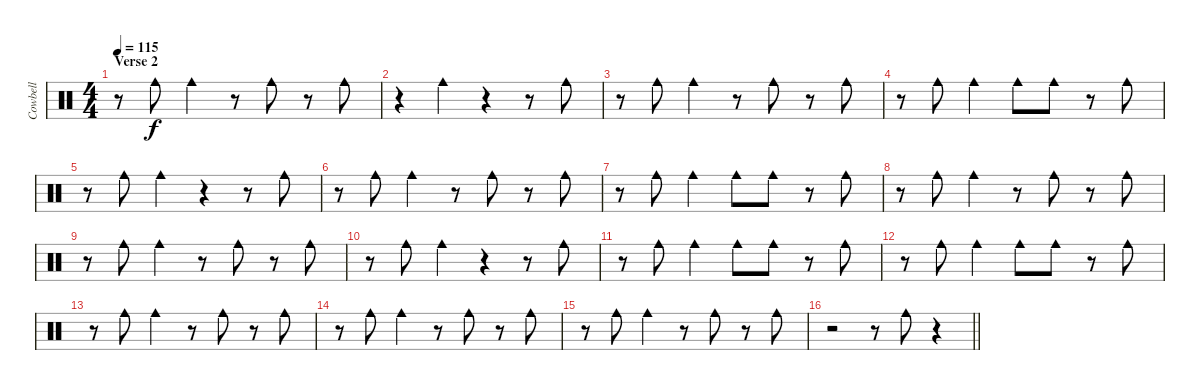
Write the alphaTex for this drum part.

\track ("Cowbell" "Cowbell") {instrument percussion}
\staff {score}
\articulation defaults
\ts (4 4)
\section ("" "Verse 2")
\tempo 115
\clef neutral
\ks c
r.8{dy f} "Cowbell medium (hit)".8 "Cowbell medium (hit)".4 r.8 "Cowbell medium (hit)".8 r.8 "Cowbell medium (hit)".8 |
r.4 "Cowbell medium (hit)".4 r.4 r.8 "Cowbell medium (hit)".8 |
r.8 "Cowbell medium (hit)".8 "Cowbell medium (hit)".4 r.8 "Cowbell medium (hit)".8 r.8 "Cowbell medium (hit)".8 |
r.8 "Cowbell medium (hit)".8 "Cowbell medium (hit)".4 "Cowbell medium (hit)".8 "Cowbell medium (hit)".8 r.8 "Cowbell medium (hit)".8 |
r.8 "Cowbell medium (hit)".8 "Cowbell medium (hit)".4 r.4 r.8 "Cowbell medium (hit)".8 |
r.8 "Cowbell medium (hit)".8 "Cowbell medium (hit)".4 r.8 "Cowbell medium (hit)".8 r.8 "Cowbell medium (hit)".8 |
r.8 "Cowbell medium (hit)".8 "Cowbell medium (hit)".4 "Cowbell medium (hit)".8 "Cowbell medium (hit)".8 r.8 "Cowbell medium (hit)".8 |
r.8 "Cowbell medium (hit)".8 "Cowbell medium (hit)".4 r.8 "Cowbell medium (hit)".8 r.8 "Cowbell medium (hit)".8 |
r.8 "Cowbell medium (hit)".8 "Cowbell medium (hit)".4 r.8 "Cowbell medium (hit)".8 r.8 "Cowbell medium (hit)".8 |
r.8 "Cowbell medium (hit)".8 "Cowbell medium (hit)".4 r.4 r.8 "Cowbell medium (hit)".8 |
r.8 "Cowbell medium (hit)".8 "Cowbell medium (hit)".4 "Cowbell medium (hit)".8 "Cowbell medium (hit)".8 r.8 "Cowbell medium (hit)".8 |
r.8 "Cowbell medium (hit)".8 "Cowbell medium (hit)".4 "Cowbell medium (hit)".8 "Cowbell medium (hit)".8 r.8 "Cowbell medium (hit)".8 |
r.8 "Cowbell medium (hit)".8 "Cowbell medium (hit)".4 r.8 "Cowbell medium (hit)".8 r.8 "Cowbell medium (hit)".8 |
r.8 "Cowbell medium (hit)".8 "Cowbell medium (hit)".4 r.8 "Cowbell medium (hit)".8 r.8 "Cowbell medium (hit)".8 |
r.8 "Cowbell medium (hit)".8 "Cowbell medium (hit)".4 r.8 "Cowbell medium (hit)".8 r.8 "Cowbell medium (hit)".8 |
\barLineRight lightlight
r.2 r.8 "Cowbell medium (hit)".8 r.4
